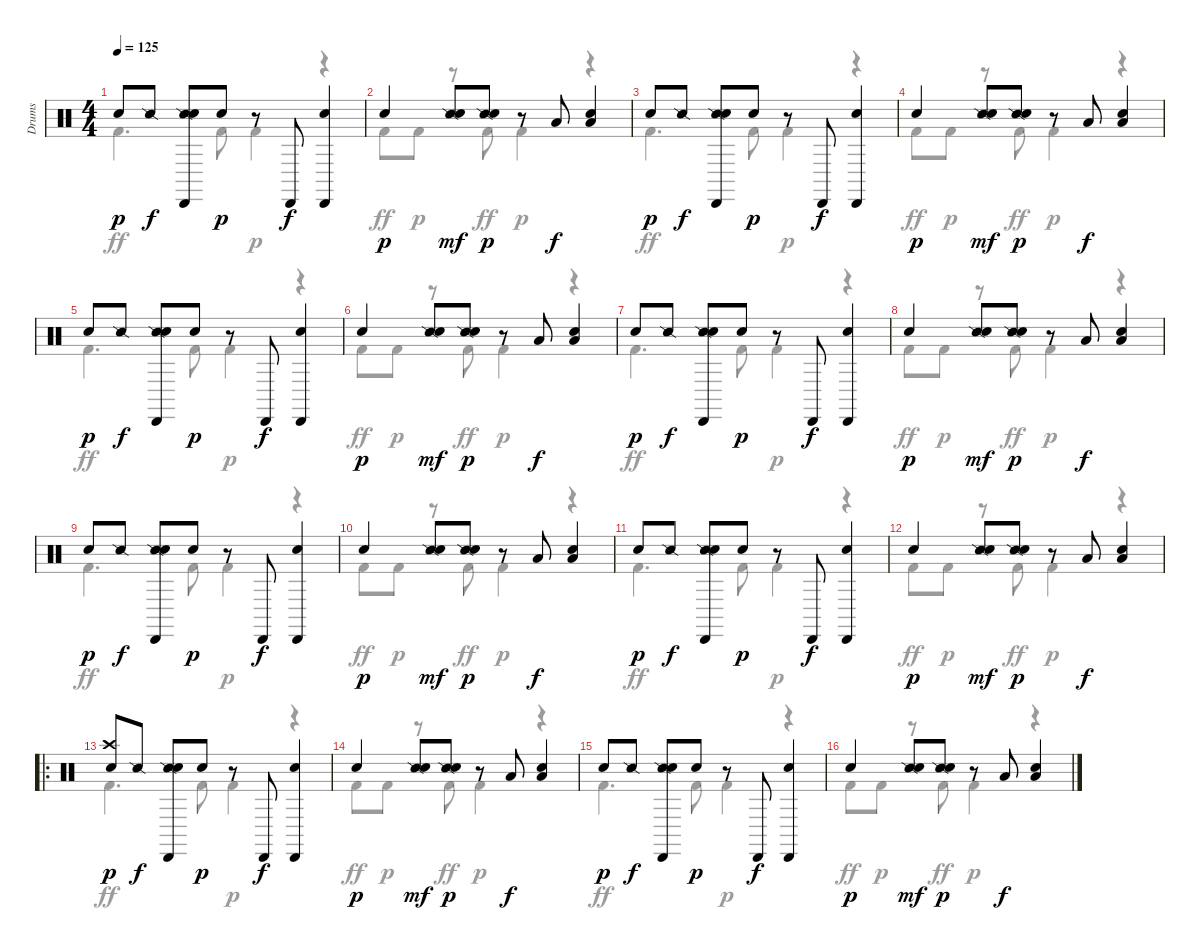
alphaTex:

\track ("Drums" "Drums") {instrument percussion}
\staff {score}
\articulation defaults
\voice
\ts (4 4)
\tempo 125
\clef neutral
\ks c "Hand Clap (hit)".8{dy p} "Snare (side stick) 2".8{dy f}
("Snare (side stick) 2" "Cabasa (hit)" "Snare (hit) 2").8 "Hand Clap (hit)".8{dy p} r.8 "Cabasa (hit)".8{dy f} ("Cabasa (hit)" "Snare (hit) 2").4 |
"Hand Clap (hit)".4{dy p} ("Snare (side stick) 2" "Snare (hit) 2").8{dy mf} ("Snare (side stick) 2" "Hand Clap (hit)").8{dy p} r.8 "Low Tom (hit)".8{dy f} ("Low Tom (hit)" "Snare (hit) 2").4 |
"Hand Clap (hit)".8{dy p} "Snare (side stick) 2".8{dy f} ("Snare (side stick) 2" "Cabasa (hit)" "Snare (hit) 2").8 "Hand Clap (hit)".8{dy p} r.8 "Cabasa (hit)".8{dy f} ("Cabasa (hit)" "Snare (hit) 2").4 |
"Hand Clap (hit)".4{dy p} ("Snare (side stick) 2" "Snare (hit) 2").8{dy mf} ("Snare (side stick) 2" "Hand Clap (hit)").8{dy p} r.8 "Low Tom (hit)".8{dy f} ("Low Tom (hit)" "Snare (hit) 2").4 |
"Hand Clap (hit)".8{dy p} "Snare (side stick) 2".8{dy f} ("Snare (side stick) 2" "Cabasa (hit)" "Snare (hit) 2").8 "Hand Clap (hit)".8{dy p} r.8 "Cabasa (hit)".8{dy f} ("Cabasa (hit)" "Snare (hit) 2").4 |
"Hand Clap (hit)".4{dy p} ("Snare (side stick) 2" "Snare (hit) 2").8{dy mf} ("Snare (side stick) 2" "Hand Clap (hit)").8{dy p} r.8 "Low Tom (hit)".8{dy f} ("Low Tom (hit)" "Snare (hit) 2").4 |
"Hand Clap (hit)".8{dy p} "Snare (side stick) 2".8{dy f} ("Snare (side stick) 2" "Cabasa (hit)" "Snare (hit) 2").8 "Hand Clap (hit)".8{dy p} r.8 "Cabasa (hit)".8{dy f} ("Cabasa (hit)" "Snare (hit) 2").4 |
"Hand Clap (hit)".4{dy p} ("Snare (side stick) 2" "Snare (hit) 2").8{dy mf} ("Snare (side stick) 2" "Hand Clap (hit)").8{dy p} r.8 "Low Tom (hit)".8{dy f} ("Low Tom (hit)" "Snare (hit) 2").4 |
"Hand Clap (hit)".8{dy p} "Snare (side stick) 2".8{dy f} ("Snare (side stick) 2" "Cabasa (hit)" "Snare (hit) 2").8 "Hand Clap (hit)".8{dy p} r.8 "Cabasa (hit)".8{dy f} ("Cabasa (hit)" "Snare (hit) 2").4 |
"Hand Clap (hit)".4{dy p} ("Snare (side stick) 2" "Snare (hit) 2").8{dy mf} ("Snare (side stick) 2" "Hand Clap (hit)").8{dy p} r.8 "Low Tom (hit)".8{dy f} ("Low Tom (hit)" "Snare (hit) 2").4 |
"Hand Clap (hit)".8{dy p} "Snare (side stick) 2".8{dy f} ("Snare (side stick) 2" "Cabasa (hit)" "Snare (hit) 2").8 "Hand Clap (hit)".8{dy p} r.8 "Cabasa (hit)".8{dy f} ("Cabasa (hit)" "Snare (hit) 2").4 |
"Hand Clap (hit)".4{dy p} ("Snare (side stick) 2" "Snare (hit) 2").8{dy mf} ("Snare (side stick) 2" "Hand Clap (hit)").8{dy p} r.8 "Low Tom (hit)".8{dy f} ("Low Tom (hit)" "Snare (hit) 2").4 |
\ro
("Crash high (hit)" "Hand Clap (hit)").8{dy p} "Snare (side stick) 2".8{dy f} ("Snare (side stick) 2" "Cabasa (hit)" "Snare (hit) 2").8 "Hand Clap (hit)".8{dy p} r.8 "Cabasa (hit)".8{dy f} ("Cabasa (hit)" "Snare (hit) 2").4 |
"Hand Clap (hit)".4{dy p} ("Snare (side stick) 2" "Snare (hit) 2").8{dy mf} ("Snare (side stick) 2" "Hand Clap (hit)").8{dy p} r.8 "Low Tom (hit)".8{dy f} ("Low Tom (hit)" "Snare (hit) 2").4 |
"Hand Clap (hit)".8{dy p} "Snare (side stick) 2".8{dy f} ("Snare (side stick) 2" "Cabasa (hit)" "Snare (hit) 2").8 "Hand Clap (hit)".8{dy p} r.8 "Cabasa (hit)".8{dy f} ("Cabasa (hit)" "Snare (hit) 2").4 |
"Hand Clap (hit)".4{dy p} ("Snare (side stick) 2" "Snare (hit) 2").8{dy mf} ("Snare (side stick) 2" "Hand Clap (hit)").8{dy p} r.8 "Low Tom (hit)".8{dy f} ("Low Tom (hit)" "Snare (hit) 2").4
\voice
\clef neutral
\ottava regular
\simile none
\ks c "Kick (hit) 2".4{d dy ff} "Kick (hit) 2".8 "Kick (hit) 2".4{dy p}
r.4 |
"Kick (hit) 2".8{dy ff} "Kick (hit) 2".8{dy p} r.8 "Kick (hit) 2".8{dy ff} "Kick (hit) 2".4{dy p} r.4 |
"Kick (hit) 2".4{d dy ff} "Kick (hit) 2".8 "Kick (hit) 2".4{dy p} r.4 |
"Kick (hit) 2".8{dy ff} "Kick (hit) 2".8{dy p} r.8 "Kick (hit) 2".8{dy ff} "Kick (hit) 2".4{dy p} r.4 |
"Kick (hit) 2".4{d dy ff} "Kick (hit) 2".8 "Kick (hit) 2".4{dy p} r.4 |
"Kick (hit) 2".8{dy ff} "Kick (hit) 2".8{dy p} r.8 "Kick (hit) 2".8{dy ff} "Kick (hit) 2".4{dy p} r.4 |
"Kick (hit) 2".4{d dy ff} "Kick (hit) 2".8 "Kick (hit) 2".4{dy p} r.4 |
"Kick (hit) 2".8{dy ff} "Kick (hit) 2".8{dy p} r.8 "Kick (hit) 2".8{dy ff} "Kick (hit) 2".4{dy p} r.4 |
"Kick (hit) 2".4{d dy ff} "Kick (hit) 2".8 "Kick (hit) 2".4{dy p} r.4 |
"Kick (hit) 2".8{dy ff} "Kick (hit) 2".8{dy p} r.8 "Kick (hit) 2".8{dy ff} "Kick (hit) 2".4{dy p} r.4 |
"Kick (hit) 2".4{d dy ff} "Kick (hit) 2".8 "Kick (hit) 2".4{dy p} r.4 |
"Kick (hit) 2".8{dy ff} "Kick (hit) 2".8{dy p} r.8 "Kick (hit) 2".8{dy ff} "Kick (hit) 2".4{dy p} r.4 |
"Kick (hit) 2".4{d dy ff} "Kick (hit) 2".8 "Kick (hit) 2".4{dy p} r.4 |
"Kick (hit) 2".8{dy ff} "Kick (hit) 2".8{dy p} r.8 "Kick (hit) 2".8{dy ff} "Kick (hit) 2".4{dy p} r.4 |
"Kick (hit) 2".4{d dy ff} "Kick (hit) 2".8 "Kick (hit) 2".4{dy p} r.4 |
"Kick (hit) 2".8{dy ff} "Kick (hit) 2".8{dy p} r.8 "Kick (hit) 2".8{dy ff} "Kick (hit) 2".4{dy p} r.4
